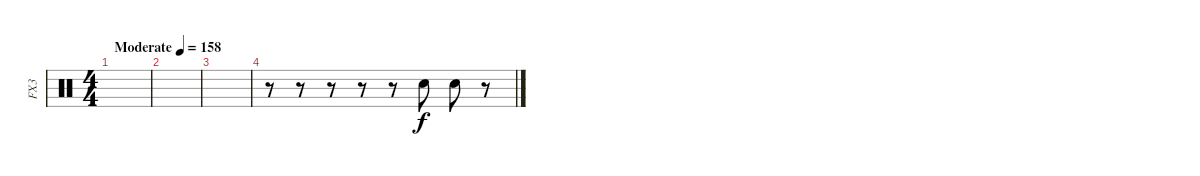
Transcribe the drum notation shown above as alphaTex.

\track ("FX3" "FX3") {instrument percussion}
\staff {score}
\articulation defaults
\ts (4 4)
\tempo (158 "Moderate")
\clef neutral
\ks c
|
|
|
r.8 r.8 r.8 r.8 r.8 "Hand Clap (hit)".8 "Hand Clap (hit)".8 r.8
